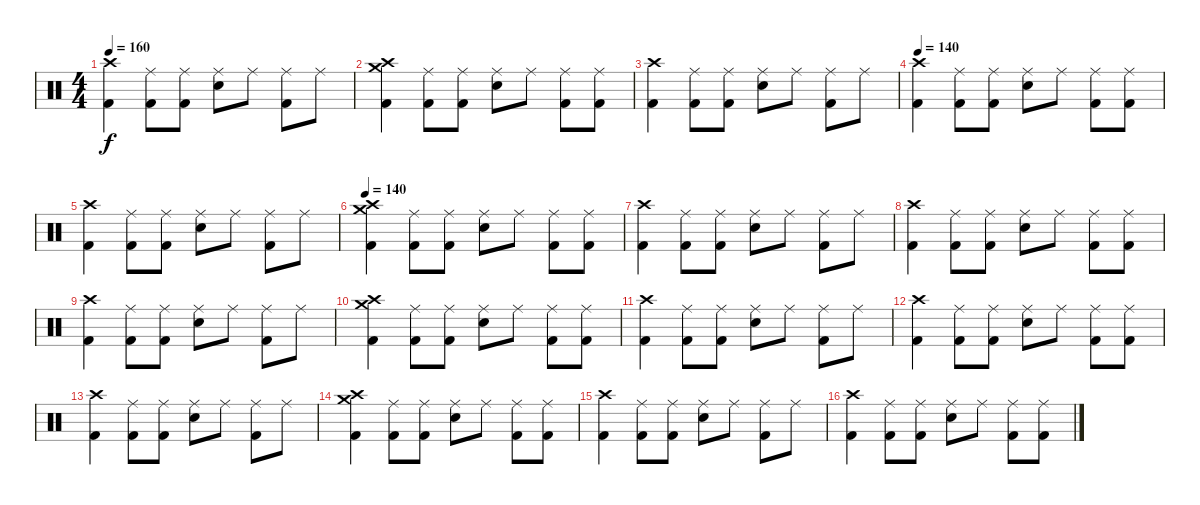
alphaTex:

\track "" {instrument percussion}
\staff {score}
\articulation defaults
\ts (4 4)
\tempo 160
\clef neutral
\ks c
("Kick (hit) 2" "Crash high (hit)").4{dy f} ("Kick (hit) 2" "Ride (middle)").8 ("Kick (hit) 2" "Ride (middle)").8 ("Snare (hit) 2" "Ride (middle)").8 "Ride (middle)".8 ("Kick (hit) 2" "Ride (middle)").8 "Ride (middle)".8 |
("Kick (hit) 2" "Crash high (hit)" "Crash medium (hit)").4 ("Kick (hit) 2" "Ride (middle)").8 ("Kick (hit) 2" "Ride (middle)").8 ("Snare (hit) 2" "Ride (middle)").8 "Ride (middle)".8 ("Kick (hit) 2" "Ride (middle)").8 ("Kick (hit) 2" "Ride (middle)").8 |
("Kick (hit) 2" "Crash high (hit)").4 ("Kick (hit) 2" "Ride (middle)").8 ("Kick (hit) 2" "Ride (middle)").8 ("Snare (hit) 2" "Ride (middle)").8 "Ride (middle)".8 ("Kick (hit) 2" "Ride (middle)").8 "Ride (middle)".8 |
\tempo 140
("Kick (hit) 2" "Crash high (hit)").4 ("Kick (hit) 2" "Ride (middle)").8 ("Kick (hit) 2" "Ride (middle)").8 ("Snare (hit) 2" "Ride (middle)").8 "Ride (middle)".8 ("Kick (hit) 2" "Ride (middle)").8 ("Kick (hit) 2" "Ride (middle)").8 |
("Kick (hit) 2" "Crash high (hit)").4 ("Kick (hit) 2" "Ride (middle)").8 ("Kick (hit) 2" "Ride (middle)").8 ("Snare (hit) 2" "Ride (middle)").8 "Ride (middle)".8 ("Kick (hit) 2" "Ride (middle)").8 "Ride (middle)".8 |
\tempo 140
("Kick (hit) 2" "Crash high (hit)" "Crash medium (hit)").4 ("Kick (hit) 2" "Ride (middle)").8 ("Kick (hit) 2" "Ride (middle)").8 ("Snare (hit) 2" "Ride (middle)").8 "Ride (middle)".8 ("Kick (hit) 2" "Ride (middle)").8 ("Kick (hit) 2" "Ride (middle)").8 |
("Kick (hit) 2" "Crash high (hit)").4 ("Kick (hit) 2" "Ride (middle)").8 ("Kick (hit) 2" "Ride (middle)").8 ("Snare (hit) 2" "Ride (middle)").8 "Ride (middle)".8 ("Kick (hit) 2" "Ride (middle)").8 "Ride (middle)".8 |
("Kick (hit) 2" "Crash high (hit)").4 ("Kick (hit) 2" "Ride (middle)").8 ("Kick (hit) 2" "Ride (middle)").8 ("Snare (hit) 2" "Ride (middle)").8 "Ride (middle)".8 ("Kick (hit) 2" "Ride (middle)").8 ("Kick (hit) 2" "Ride (middle)").8 |
("Kick (hit) 2" "Crash high (hit)").4 ("Kick (hit) 2" "Ride (middle)").8 ("Kick (hit) 2" "Ride (middle)").8 ("Snare (hit) 2" "Ride (middle)").8 "Ride (middle)".8 ("Kick (hit) 2" "Ride (middle)").8 "Ride (middle)".8 |
("Kick (hit) 2" "Crash high (hit)" "Crash medium (hit)").4 ("Kick (hit) 2" "Ride (middle)").8 ("Kick (hit) 2" "Ride (middle)").8 ("Snare (hit) 2" "Ride (middle)").8 "Ride (middle)".8 ("Kick (hit) 2" "Ride (middle)").8 ("Kick (hit) 2" "Ride (middle)").8 |
("Kick (hit) 2" "Crash high (hit)").4 ("Kick (hit) 2" "Ride (middle)").8 ("Kick (hit) 2" "Ride (middle)").8 ("Snare (hit) 2" "Ride (middle)").8 "Ride (middle)".8 ("Kick (hit) 2" "Ride (middle)").8 "Ride (middle)".8 |
("Kick (hit) 2" "Crash high (hit)").4 ("Kick (hit) 2" "Ride (middle)").8 ("Kick (hit) 2" "Ride (middle)").8 ("Snare (hit) 2" "Ride (middle)").8 "Ride (middle)".8 ("Kick (hit) 2" "Ride (middle)").8 ("Kick (hit) 2" "Ride (middle)").8 |
("Kick (hit) 2" "Crash high (hit)").4 ("Kick (hit) 2" "Ride (middle)").8 ("Kick (hit) 2" "Ride (middle)").8 ("Snare (hit) 2" "Ride (middle)").8 "Ride (middle)".8 ("Kick (hit) 2" "Ride (middle)").8 "Ride (middle)".8 |
("Kick (hit) 2" "Crash high (hit)" "Crash medium (hit)").4 ("Kick (hit) 2" "Ride (middle)").8 ("Kick (hit) 2" "Ride (middle)").8 ("Snare (hit) 2" "Ride (middle)").8 "Ride (middle)".8 ("Kick (hit) 2" "Ride (middle)").8 ("Kick (hit) 2" "Ride (middle)").8 |
("Kick (hit) 2" "Crash high (hit)").4 ("Kick (hit) 2" "Ride (middle)").8 ("Kick (hit) 2" "Ride (middle)").8 ("Snare (hit) 2" "Ride (middle)").8 "Ride (middle)".8 ("Kick (hit) 2" "Ride (middle)").8 "Ride (middle)".8 |
("Kick (hit) 2" "Crash high (hit)").4 ("Kick (hit) 2" "Ride (middle)").8 ("Kick (hit) 2" "Ride (middle)").8 ("Snare (hit) 2" "Ride (middle)").8 "Ride (middle)".8 ("Kick (hit) 2" "Ride (middle)").8 ("Kick (hit) 2" "Ride (middle)").8
